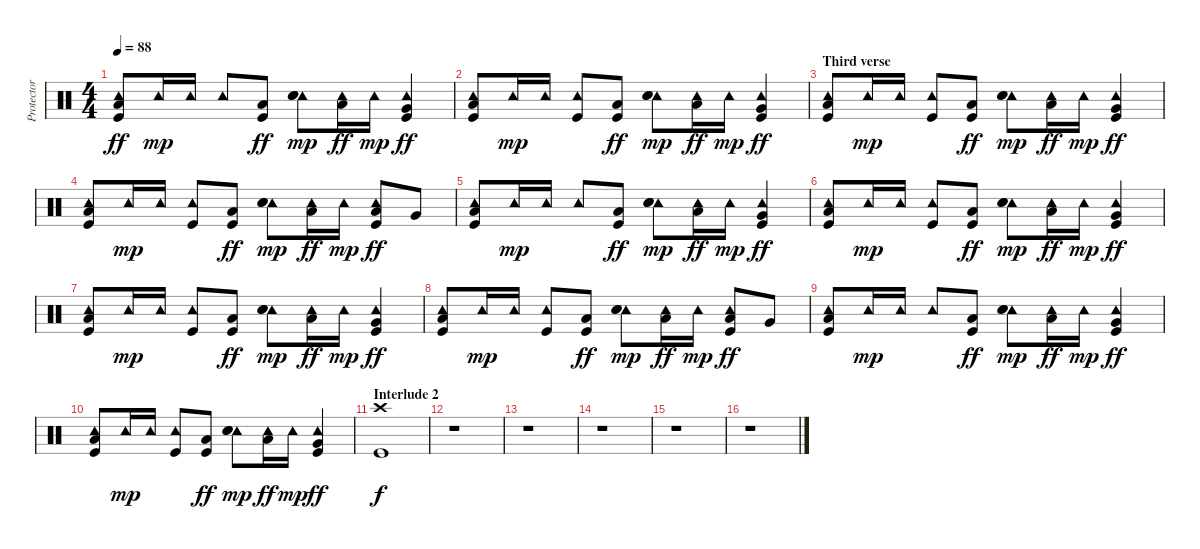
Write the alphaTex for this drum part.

\track ("Protector (Drums)" "Protector ") {instrument percussion}
\staff {score}
\articulation defaults
\ts (4 4)
\tempo 88
\clef neutral
\ks c
("Tambourine (hit)" "Low Floor Tom (hit)" "Kick (hit)").8{dy ff} "Tambourine (hit)".16{dy mp} "Tambourine (hit)".16 "Tambourine (hit)".8 ("Low Floor Tom (hit)" "Kick (hit)").8{dy ff} ("Tambourine (hit)" "Electric Snare (hit)" "Snare (hit) 2").8{dy mp} ("Tambourine (hit)" "Low Tom (hit)").16{dy ff} "Tambourine (hit)".16{dy mp} ("Tambourine (hit)" "Very Low Tom (hit)" "Kick (hit)").4{dy ff} |
("Tambourine (hit)" "Low Floor Tom (hit)" "Kick (hit)").8 "Tambourine (hit)".16{dy mp} "Tambourine (hit)".16 ("Tambourine (hit)" "Kick (hit)").8 ("Low Floor Tom (hit)" "Kick (hit)").8{dy ff} ("Tambourine (hit)" "Electric Snare (hit)" "Snare (hit) 2").8{dy mp} ("Tambourine (hit)" "Low Tom (hit)").16{dy ff} "Tambourine (hit)".16{dy mp} ("Tambourine (hit)" "Very Low Tom (hit)" "Kick (hit)").4{dy ff} |
\section ("" "Third verse")
("Tambourine (hit)" "Low Floor Tom (hit)" "Kick (hit)").8 "Tambourine (hit)".16{dy mp} "Tambourine (hit)".16 ("Tambourine (hit)" "Kick (hit)").8 ("Low Floor Tom (hit)" "Kick (hit)").8{dy ff} ("Tambourine (hit)" "Electric Snare (hit)" "Snare (hit) 2").8{dy mp} ("Tambourine (hit)" "Low Tom (hit)").16{dy ff} "Tambourine (hit)".16{dy mp} ("Tambourine (hit)" "Very Low Tom (hit)" "Kick (hit)").4{dy ff} |
("Tambourine (hit)" "Low Floor Tom (hit)" "Kick (hit)").8 "Tambourine (hit)".16{dy mp} "Tambourine (hit)".16 ("Tambourine (hit)" "Kick (hit)").8 ("Low Floor Tom (hit)" "Kick (hit)").8{dy ff} ("Tambourine (hit)" "Electric Snare (hit)" "Snare (hit) 2").8{dy mp} ("Tambourine (hit)" "Low Tom (hit)").16{dy ff} "Tambourine (hit)".16{dy mp} ("Tambourine (hit)" "Low Tom (hit)" "Kick (hit)").8{dy ff} "Very Low Tom (hit)".8 |
("Tambourine (hit)" "Low Floor Tom (hit)" "Kick (hit)").8 "Tambourine (hit)".16{dy mp} "Tambourine (hit)".16 "Tambourine (hit)".8 ("Low Floor Tom (hit)" "Kick (hit)").8{dy ff} ("Tambourine (hit)" "Electric Snare (hit)" "Snare (hit) 2").8{dy mp} ("Tambourine (hit)" "Low Tom (hit)").16{dy ff} "Tambourine (hit)".16{dy mp} ("Tambourine (hit)" "Very Low Tom (hit)" "Kick (hit)").4{dy ff} |
("Tambourine (hit)" "Low Floor Tom (hit)" "Kick (hit)").8 "Tambourine (hit)".16{dy mp} "Tambourine (hit)".16 ("Tambourine (hit)" "Kick (hit)").8 ("Low Floor Tom (hit)" "Kick (hit)").8{dy ff} ("Tambourine (hit)" "Electric Snare (hit)" "Snare (hit) 2").8{dy mp} ("Tambourine (hit)" "Low Tom (hit)").16{dy ff} "Tambourine (hit)".16{dy mp} ("Tambourine (hit)" "Very Low Tom (hit)" "Kick (hit)").4{dy ff} |
("Tambourine (hit)" "Low Floor Tom (hit)" "Kick (hit)").8 "Tambourine (hit)".16{dy mp} "Tambourine (hit)".16 ("Tambourine (hit)" "Kick (hit)").8 ("Low Floor Tom (hit)" "Kick (hit)").8{dy ff} ("Tambourine (hit)" "Electric Snare (hit)" "Snare (hit) 2").8{dy mp} ("Tambourine (hit)" "Low Tom (hit)").16{dy ff} "Tambourine (hit)".16{dy mp} ("Tambourine (hit)" "Very Low Tom (hit)" "Kick (hit)").4{dy ff} |
("Tambourine (hit)" "Low Floor Tom (hit)" "Kick (hit)").8 "Tambourine (hit)".16{dy mp} "Tambourine (hit)".16 ("Tambourine (hit)" "Kick (hit)").8 ("Low Floor Tom (hit)" "Kick (hit)").8{dy ff} ("Tambourine (hit)" "Electric Snare (hit)" "Snare (hit) 2").8{dy mp} ("Tambourine (hit)" "Low Tom (hit)").16{dy ff} "Tambourine (hit)".16{dy mp} ("Tambourine (hit)" "Low Tom (hit)" "Kick (hit)").8{dy ff} "Very Low Tom (hit)".8 |
("Tambourine (hit)" "Low Floor Tom (hit)" "Kick (hit)").8 "Tambourine (hit)".16{dy mp} "Tambourine (hit)".16 "Tambourine (hit)".8 ("Low Floor Tom (hit)" "Kick (hit)").8{dy ff} ("Tambourine (hit)" "Electric Snare (hit)" "Snare (hit) 2").8{dy mp} ("Tambourine (hit)" "Low Tom (hit)").16{dy ff} "Tambourine (hit)".16{dy mp} ("Tambourine (hit)" "Very Low Tom (hit)" "Kick (hit)").4{dy ff} |
("Tambourine (hit)" "Low Floor Tom (hit)" "Kick (hit)").8 "Tambourine (hit)".16{dy mp} "Tambourine (hit)".16 ("Tambourine (hit)" "Kick (hit)").8 ("Low Floor Tom (hit)" "Kick (hit)").8{dy ff} ("Tambourine (hit)" "Electric Snare (hit)" "Snare (hit) 2").8{dy mp} ("Tambourine (hit)" "Low Tom (hit)").16{dy ff} "Tambourine (hit)".16{dy mp} ("Tambourine (hit)" "Very Low Tom (hit)" "Kick (hit)").4{dy ff} |
\section ("" "Interlude 2")
("Crash high (hit)" "Kick (hit)").1{dy f} |
r.1 |
r.1 |
r.1 |
r.1 |
r.1
